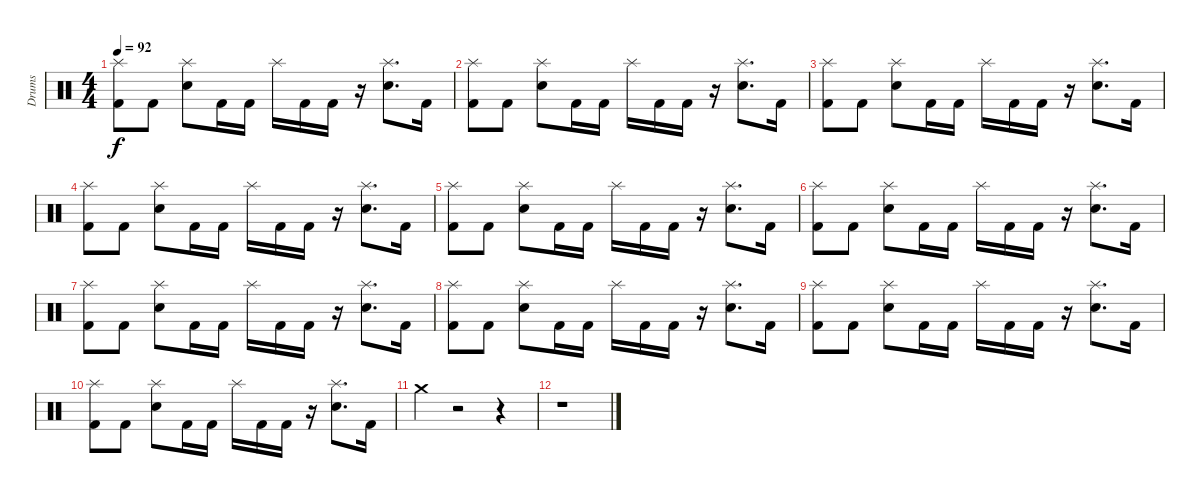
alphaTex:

\track ("Drums" "Drums") {instrument percussion}
\staff {score}
\articulation defaults
\ts (4 4)
\tempo 92
\clef neutral
\ks c
("Splash (hit)" "Kick (hit) 2").8{dy f} "Kick (hit) 2".8 ("Splash (hit)" "Electric Snare (hit)").8 "Kick (hit) 2".16 "Kick (hit) 2".16 "Splash (hit)".16 "Kick (hit) 2".16 "Kick (hit) 2".16 r.16 ("Splash (hit)" "Electric Snare (hit)").8{d} "Kick (hit) 2".16 |
("Splash (hit)" "Kick (hit) 2").8 "Kick (hit) 2".8 ("Splash (hit)" "Electric Snare (hit)").8 "Kick (hit) 2".16 "Kick (hit) 2".16 "Splash (hit)".16 "Kick (hit) 2".16 "Kick (hit) 2".16 r.16 ("Splash (hit)" "Electric Snare (hit)").8{d} "Kick (hit) 2".16 |
("Splash (hit)" "Kick (hit) 2").8 "Kick (hit) 2".8 ("Splash (hit)" "Electric Snare (hit)").8 "Kick (hit) 2".16 "Kick (hit) 2".16 "Splash (hit)".16 "Kick (hit) 2".16 "Kick (hit) 2".16 r.16 ("Splash (hit)" "Electric Snare (hit)").8{d} "Kick (hit) 2".16 |
("Splash (hit)" "Kick (hit) 2").8 "Kick (hit) 2".8 ("Splash (hit)" "Electric Snare (hit)").8 "Kick (hit) 2".16 "Kick (hit) 2".16 "Splash (hit)".16 "Kick (hit) 2".16 "Kick (hit) 2".16 r.16 ("Splash (hit)" "Electric Snare (hit)").8{d} "Kick (hit) 2".16 |
("Splash (hit)" "Kick (hit) 2").8 "Kick (hit) 2".8 ("Splash (hit)" "Electric Snare (hit)").8 "Kick (hit) 2".16 "Kick (hit) 2".16 "Splash (hit)".16 "Kick (hit) 2".16 "Kick (hit) 2".16 r.16 ("Splash (hit)" "Electric Snare (hit)").8{d} "Kick (hit) 2".16 |
("Splash (hit)" "Kick (hit) 2").8 "Kick (hit) 2".8 ("Splash (hit)" "Electric Snare (hit)").8 "Kick (hit) 2".16 "Kick (hit) 2".16 "Splash (hit)".16 "Kick (hit) 2".16 "Kick (hit) 2".16 r.16 ("Splash (hit)" "Electric Snare (hit)").8{d} "Kick (hit) 2".16 |
("Splash (hit)" "Kick (hit) 2").8 "Kick (hit) 2".8 ("Splash (hit)" "Electric Snare (hit)").8 "Kick (hit) 2".16 "Kick (hit) 2".16 "Splash (hit)".16 "Kick (hit) 2".16 "Kick (hit) 2".16 r.16 ("Splash (hit)" "Electric Snare (hit)").8{d} "Kick (hit) 2".16 |
("Splash (hit)" "Kick (hit) 2").8 "Kick (hit) 2".8 ("Splash (hit)" "Electric Snare (hit)").8 "Kick (hit) 2".16 "Kick (hit) 2".16 "Splash (hit)".16 "Kick (hit) 2".16 "Kick (hit) 2".16 r.16 ("Splash (hit)" "Electric Snare (hit)").8{d} "Kick (hit) 2".16 |
("Splash (hit)" "Kick (hit) 2").8 "Kick (hit) 2".8 ("Splash (hit)" "Electric Snare (hit)").8 "Kick (hit) 2".16 "Kick (hit) 2".16 "Splash (hit)".16 "Kick (hit) 2".16 "Kick (hit) 2".16 r.16 ("Splash (hit)" "Electric Snare (hit)").8{d} "Kick (hit) 2".16 |
("Splash (hit)" "Kick (hit) 2").8 "Kick (hit) 2".8 ("Splash (hit)" "Electric Snare (hit)").8 "Kick (hit) 2".16 "Kick (hit) 2".16 "Splash (hit)".16 "Kick (hit) 2".16 "Kick (hit) 2".16 r.16 ("Splash (hit)" "Electric Snare (hit)").8{d} "Kick (hit) 2".16 |
"Crash medium (hit)".4 r.2 r.4 |
r.1
